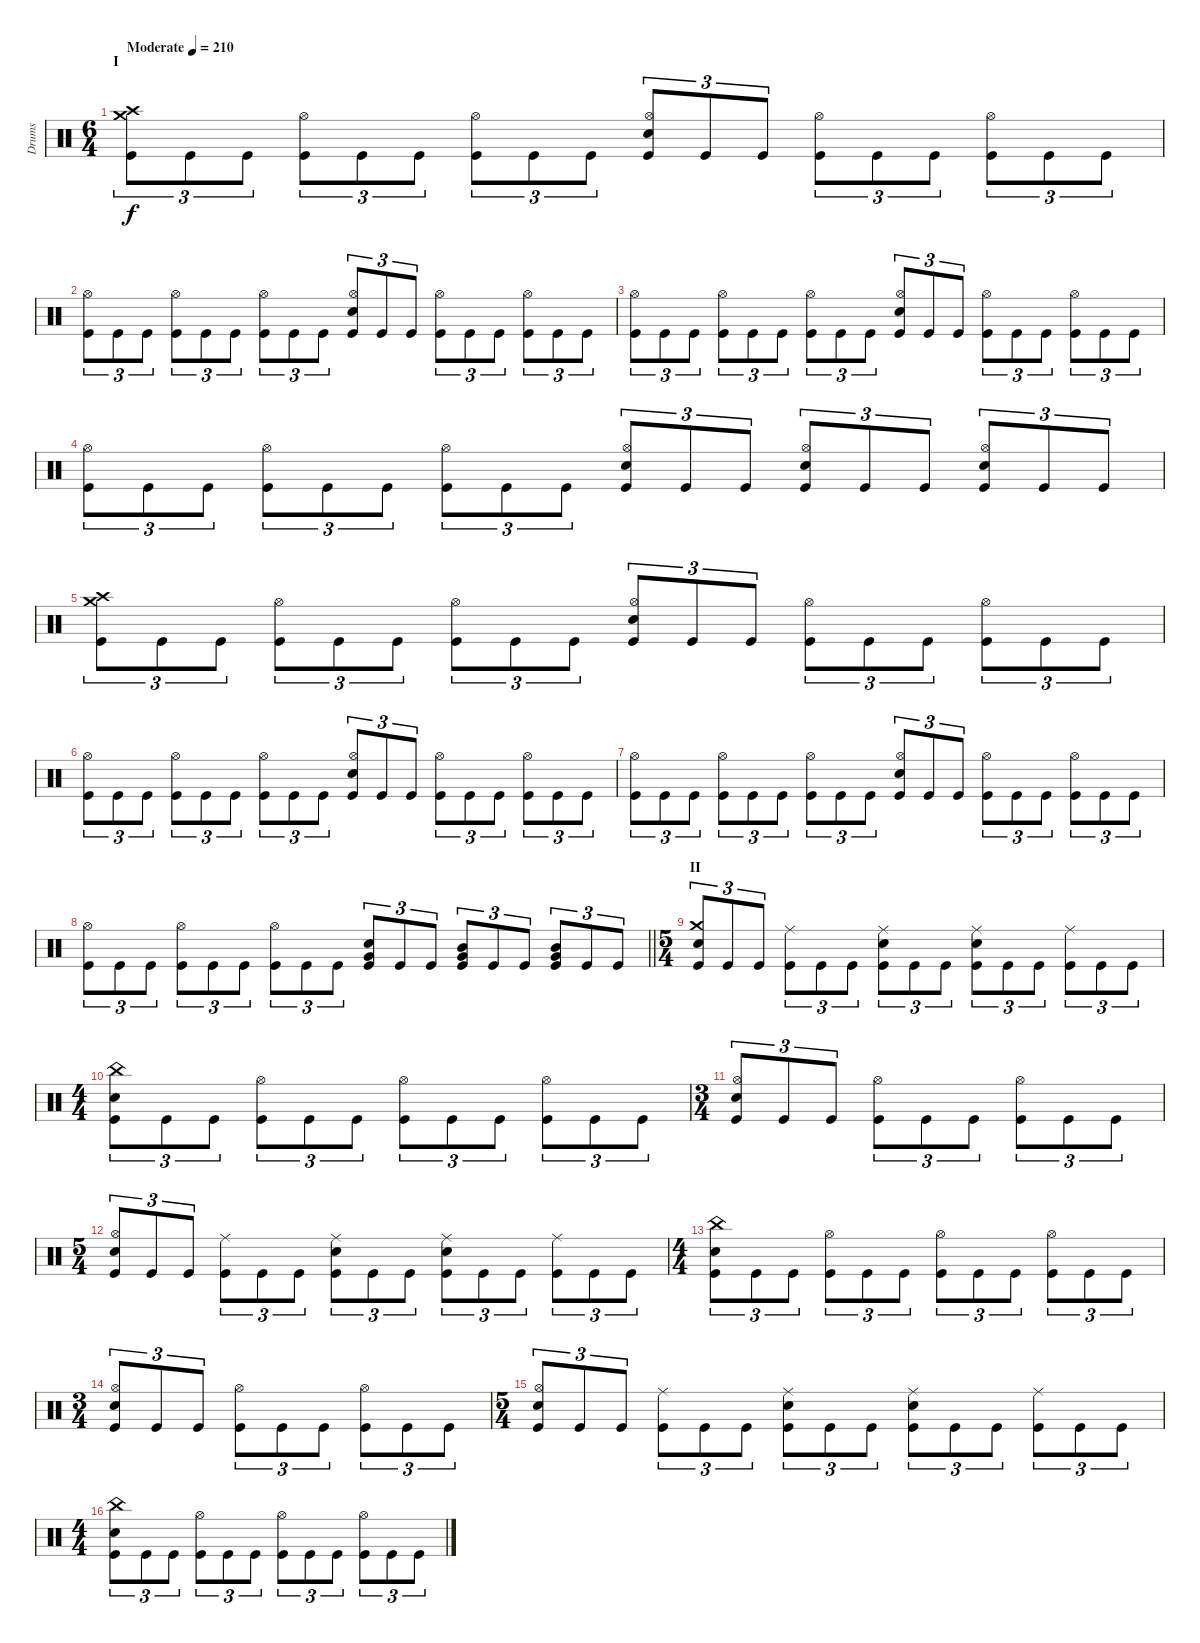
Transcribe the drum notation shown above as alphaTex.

\track ("Drums" "Drums") {instrument percussion}
\staff {score}
\articulation defaults
\ts (6 4)
\section ("" "I")
\tempo (210 "Moderate")
\clef neutral
\ks c
("Kick (hit)" "Crash high (hit)" "Crash medium (hit)").8{tu (3 2) dy f} "Kick (hit)".8{tu (3 2)} "Kick (hit)".8{tu (3 2)} ("Kick (hit)" "Hi-Hat (open)").8{tu (3 2)} "Kick (hit)".8{tu (3 2)} "Kick (hit)".8{tu (3 2)} ("Kick (hit)" "Hi-Hat (open)").8{tu (3 2)} "Kick (hit)".8{tu (3 2)} "Kick (hit)".8{tu (3 2)} ("Kick (hit)" "Electric Snare (hit)" "Hi-Hat (open)").8{tu (3 2)} "Kick (hit)".8{tu (3 2)} "Kick (hit)".8{tu (3 2)} ("Kick (hit)" "Hi-Hat (open)").8{tu (3 2)} "Kick (hit)".8{tu (3 2)} "Kick (hit)".8{tu (3 2)} ("Kick (hit)" "Hi-Hat (open)").8{tu (3 2)} "Kick (hit)".8{tu (3 2)} "Kick (hit)".8{tu (3 2)} |
("Kick (hit)" "Hi-Hat (open)").8{tu (3 2)} "Kick (hit)".8{tu (3 2)} "Kick (hit)".8{tu (3 2)} ("Kick (hit)" "Hi-Hat (open)").8{tu (3 2)} "Kick (hit)".8{tu (3 2)} "Kick (hit)".8{tu (3 2)} ("Kick (hit)" "Hi-Hat (open)").8{tu (3 2)} "Kick (hit)".8{tu (3 2)} "Kick (hit)".8{tu (3 2)} ("Kick (hit)" "Electric Snare (hit)" "Hi-Hat (open)").8{tu (3 2)} "Kick (hit)".8{tu (3 2)} "Kick (hit)".8{tu (3 2)} ("Kick (hit)" "Hi-Hat (open)").8{tu (3 2)} "Kick (hit)".8{tu (3 2)} "Kick (hit)".8{tu (3 2)} ("Kick (hit)" "Hi-Hat (open)").8{tu (3 2)} "Kick (hit)".8{tu (3 2)} "Kick (hit)".8{tu (3 2)} |
("Kick (hit)" "Hi-Hat (open)").8{tu (3 2)} "Kick (hit)".8{tu (3 2)} "Kick (hit)".8{tu (3 2)} ("Kick (hit)" "Hi-Hat (open)").8{tu (3 2)} "Kick (hit)".8{tu (3 2)} "Kick (hit)".8{tu (3 2)} ("Kick (hit)" "Hi-Hat (open)").8{tu (3 2)} "Kick (hit)".8{tu (3 2)} "Kick (hit)".8{tu (3 2)} ("Kick (hit)" "Electric Snare (hit)" "Hi-Hat (open)").8{tu (3 2)} "Kick (hit)".8{tu (3 2)} "Kick (hit)".8{tu (3 2)} ("Kick (hit)" "Hi-Hat (open)").8{tu (3 2)} "Kick (hit)".8{tu (3 2)} "Kick (hit)".8{tu (3 2)} ("Kick (hit)" "Hi-Hat (open)").8{tu (3 2)} "Kick (hit)".8{tu (3 2)} "Kick (hit)".8{tu (3 2)} |
("Kick (hit)" "Hi-Hat (open)").8{tu (3 2)} "Kick (hit)".8{tu (3 2)} "Kick (hit)".8{tu (3 2)} ("Kick (hit)" "Hi-Hat (open)").8{tu (3 2)} "Kick (hit)".8{tu (3 2)} "Kick (hit)".8{tu (3 2)} ("Kick (hit)" "Hi-Hat (open)").8{tu (3 2)} "Kick (hit)".8{tu (3 2)} "Kick (hit)".8{tu (3 2)} ("Kick (hit)" "Electric Snare (hit)" "Hi-Hat (open)").8{tu (3 2)} "Kick (hit)".8{tu (3 2)} "Kick (hit)".8{tu (3 2)} ("Kick (hit)" "Electric Snare (hit)" "Hi-Hat (open)").8{tu (3 2)} "Kick (hit)".8{tu (3 2)} "Kick (hit)".8{tu (3 2)} ("Kick (hit)" "Electric Snare (hit)" "Hi-Hat (open)").8{tu (3 2)} "Kick (hit)".8{tu (3 2)} "Kick (hit)".8{tu (3 2)} |
("Kick (hit)" "Crash high (hit)" "Crash medium (hit)").8{tu (3 2)} "Kick (hit)".8{tu (3 2)} "Kick (hit)".8{tu (3 2)} ("Kick (hit)" "Hi-Hat (open)").8{tu (3 2)} "Kick (hit)".8{tu (3 2)} "Kick (hit)".8{tu (3 2)} ("Kick (hit)" "Hi-Hat (open)").8{tu (3 2)} "Kick (hit)".8{tu (3 2)} "Kick (hit)".8{tu (3 2)} ("Kick (hit)" "Electric Snare (hit)" "Hi-Hat (open)").8{tu (3 2)} "Kick (hit)".8{tu (3 2)} "Kick (hit)".8{tu (3 2)} ("Kick (hit)" "Hi-Hat (open)").8{tu (3 2)} "Kick (hit)".8{tu (3 2)} "Kick (hit)".8{tu (3 2)} ("Kick (hit)" "Hi-Hat (open)").8{tu (3 2)} "Kick (hit)".8{tu (3 2)} "Kick (hit)".8{tu (3 2)} |
("Kick (hit)" "Hi-Hat (open)").8{tu (3 2)} "Kick (hit)".8{tu (3 2)} "Kick (hit)".8{tu (3 2)} ("Kick (hit)" "Hi-Hat (open)").8{tu (3 2)} "Kick (hit)".8{tu (3 2)} "Kick (hit)".8{tu (3 2)} ("Kick (hit)" "Hi-Hat (open)").8{tu (3 2)} "Kick (hit)".8{tu (3 2)} "Kick (hit)".8{tu (3 2)} ("Kick (hit)" "Electric Snare (hit)" "Hi-Hat (open)").8{tu (3 2)} "Kick (hit)".8{tu (3 2)} "Kick (hit)".8{tu (3 2)} ("Kick (hit)" "Hi-Hat (open)").8{tu (3 2)} "Kick (hit)".8{tu (3 2)} "Kick (hit)".8{tu (3 2)} ("Kick (hit)" "Hi-Hat (open)").8{tu (3 2)} "Kick (hit)".8{tu (3 2)} "Kick (hit)".8{tu (3 2)} |
("Kick (hit)" "Hi-Hat (open)").8{tu (3 2)} "Kick (hit)".8{tu (3 2)} "Kick (hit)".8{tu (3 2)} ("Kick (hit)" "Hi-Hat (open)").8{tu (3 2)} "Kick (hit)".8{tu (3 2)} "Kick (hit)".8{tu (3 2)} ("Kick (hit)" "Hi-Hat (open)").8{tu (3 2)} "Kick (hit)".8{tu (3 2)} "Kick (hit)".8{tu (3 2)} ("Kick (hit)" "Electric Snare (hit)" "Hi-Hat (open)").8{tu (3 2)} "Kick (hit)".8{tu (3 2)} "Kick (hit)".8{tu (3 2)} ("Kick (hit)" "Hi-Hat (open)").8{tu (3 2)} "Kick (hit)".8{tu (3 2)} "Kick (hit)".8{tu (3 2)} ("Kick (hit)" "Hi-Hat (open)").8{tu (3 2)} "Kick (hit)".8{tu (3 2)} "Kick (hit)".8{tu (3 2)} |
\barLineRight lightlight
("Kick (hit)" "Hi-Hat (open)").8{tu (3 2)} "Kick (hit)".8{tu (3 2)} "Kick (hit)".8{tu (3 2)} ("Kick (hit)" "Hi-Hat (open)").8{tu (3 2)} "Kick (hit)".8{tu (3 2)} "Kick (hit)".8{tu (3 2)} ("Kick (hit)" "Hi-Hat (open)").8{tu (3 2)} "Kick (hit)".8{tu (3 2)} "Kick (hit)".8{tu (3 2)} ("Kick (hit)" "Electric Snare (hit)" "Very Low Tom (hit)").8{tu (3 2)} "Kick (hit)".8{tu (3 2)} "Kick (hit)".8{tu (3 2)} ("Kick (hit)" "Very Low Tom (hit)" "Mid Tom (hit)").8{tu (3 2)} "Kick (hit)".8{tu (3 2)} "Kick (hit)".8{tu (3 2)} ("Kick (hit)" "Very Low Tom (hit)" "Mid Tom (hit)").8{tu (3 2)} "Kick (hit)".8{tu (3 2)} "Kick (hit)".8{tu (3 2)} |
\ts (5 4)
\section ("" "II")
("Kick (hit)" "Electric Snare (hit)" "Crash medium (hit)").8{tu (3 2)} "Kick (hit)".8{tu (3 2)} "Kick (hit)".8{tu (3 2)} ("Kick (hit)" "Ride (middle)").8{tu (3 2)} "Kick (hit)".8{tu (3 2)} "Kick (hit)".8{tu (3 2)} ("Kick (hit)" "Electric Snare (hit)" "Ride (middle)").8{tu (3 2)} "Kick (hit)".8{tu (3 2)} "Kick (hit)".8{tu (3 2)} ("Kick (hit)" "Electric Snare (hit)" "Ride (middle)").8{tu (3 2)} "Kick (hit)".8{tu (3 2)} "Kick (hit)".8{tu (3 2)} ("Kick (hit)" "Ride (middle)").8{tu (3 2)} "Kick (hit)".8{tu (3 2)} "Kick (hit)".8{tu (3 2)} |
\ts (4 4)
("Kick (hit)" "Electric Snare (hit)" "China (hit)").8{tu (3 2)} "Kick (hit)".8{tu (3 2)} "Kick (hit)".8{tu (3 2)} ("Kick (hit)" "Hi-Hat (open)").8{tu (3 2)} "Kick (hit)".8{tu (3 2)} "Kick (hit)".8{tu (3 2)} ("Kick (hit)" "Hi-Hat (open)").8{tu (3 2)} "Kick (hit)".8{tu (3 2)} "Kick (hit)".8{tu (3 2)} ("Kick (hit)" "Hi-Hat (open)").8{tu (3 2)} "Kick (hit)".8{tu (3 2)} "Kick (hit)".8{tu (3 2)} |
\ts (3 4)
("Kick (hit)" "Electric Snare (hit)" "Hi-Hat (open)").8{tu (3 2)} "Kick (hit)".8{tu (3 2)} "Kick (hit)".8{tu (3 2)} ("Kick (hit)" "Hi-Hat (open)").8{tu (3 2)} "Kick (hit)".8{tu (3 2)} "Kick (hit)".8{tu (3 2)} ("Kick (hit)" "Hi-Hat (open)").8{tu (3 2)} "Kick (hit)".8{tu (3 2)} "Kick (hit)".8{tu (3 2)} |
\ts (5 4)
("Kick (hit)" "Electric Snare (hit)" "Hi-Hat (open)").8{tu (3 2)} "Kick (hit)".8{tu (3 2)} "Kick (hit)".8{tu (3 2)} ("Kick (hit)" "Ride (middle)").8{tu (3 2)} "Kick (hit)".8{tu (3 2)} "Kick (hit)".8{tu (3 2)} ("Kick (hit)" "Electric Snare (hit)" "Ride (middle)").8{tu (3 2)} "Kick (hit)".8{tu (3 2)} "Kick (hit)".8{tu (3 2)} ("Kick (hit)" "Electric Snare (hit)" "Ride (middle)").8{tu (3 2)} "Kick (hit)".8{tu (3 2)} "Kick (hit)".8{tu (3 2)} ("Kick (hit)" "Ride (middle)").8{tu (3 2)} "Kick (hit)".8{tu (3 2)} "Kick (hit)".8{tu (3 2)} |
\ts (4 4)
("Kick (hit)" "Electric Snare (hit)" "China (hit)").8{tu (3 2)} "Kick (hit)".8{tu (3 2)} "Kick (hit)".8{tu (3 2)} ("Kick (hit)" "Hi-Hat (open)").8{tu (3 2)} "Kick (hit)".8{tu (3 2)} "Kick (hit)".8{tu (3 2)} ("Kick (hit)" "Hi-Hat (open)").8{tu (3 2)} "Kick (hit)".8{tu (3 2)} "Kick (hit)".8{tu (3 2)} ("Kick (hit)" "Hi-Hat (open)").8{tu (3 2)} "Kick (hit)".8{tu (3 2)} "Kick (hit)".8{tu (3 2)} |
\ts (3 4)
("Kick (hit)" "Electric Snare (hit)" "Hi-Hat (open)").8{tu (3 2)} "Kick (hit)".8{tu (3 2)} "Kick (hit)".8{tu (3 2)} ("Kick (hit)" "Hi-Hat (open)").8{tu (3 2)} "Kick (hit)".8{tu (3 2)} "Kick (hit)".8{tu (3 2)} ("Kick (hit)" "Hi-Hat (open)").8{tu (3 2)} "Kick (hit)".8{tu (3 2)} "Kick (hit)".8{tu (3 2)} |
\ts (5 4)
("Kick (hit)" "Electric Snare (hit)" "Hi-Hat (open)").8{tu (3 2)} "Kick (hit)".8{tu (3 2)} "Kick (hit)".8{tu (3 2)} ("Kick (hit)" "Ride (middle)").8{tu (3 2)} "Kick (hit)".8{tu (3 2)} "Kick (hit)".8{tu (3 2)} ("Kick (hit)" "Electric Snare (hit)" "Ride (middle)").8{tu (3 2)} "Kick (hit)".8{tu (3 2)} "Kick (hit)".8{tu (3 2)} ("Kick (hit)" "Electric Snare (hit)" "Ride (middle)").8{tu (3 2)} "Kick (hit)".8{tu (3 2)} "Kick (hit)".8{tu (3 2)} ("Kick (hit)" "Ride (middle)").8{tu (3 2)} "Kick (hit)".8{tu (3 2)} "Kick (hit)".8{tu (3 2)} |
\ts (4 4)
("Kick (hit)" "Electric Snare (hit)" "China (hit)").8{tu (3 2)} "Kick (hit)".8{tu (3 2)} "Kick (hit)".8{tu (3 2)} ("Kick (hit)" "Hi-Hat (open)").8{tu (3 2)} "Kick (hit)".8{tu (3 2)} "Kick (hit)".8{tu (3 2)} ("Kick (hit)" "Hi-Hat (open)").8{tu (3 2)} "Kick (hit)".8{tu (3 2)} "Kick (hit)".8{tu (3 2)} ("Kick (hit)" "Hi-Hat (open)").8{tu (3 2)} "Kick (hit)".8{tu (3 2)} "Kick (hit)".8{tu (3 2)}
